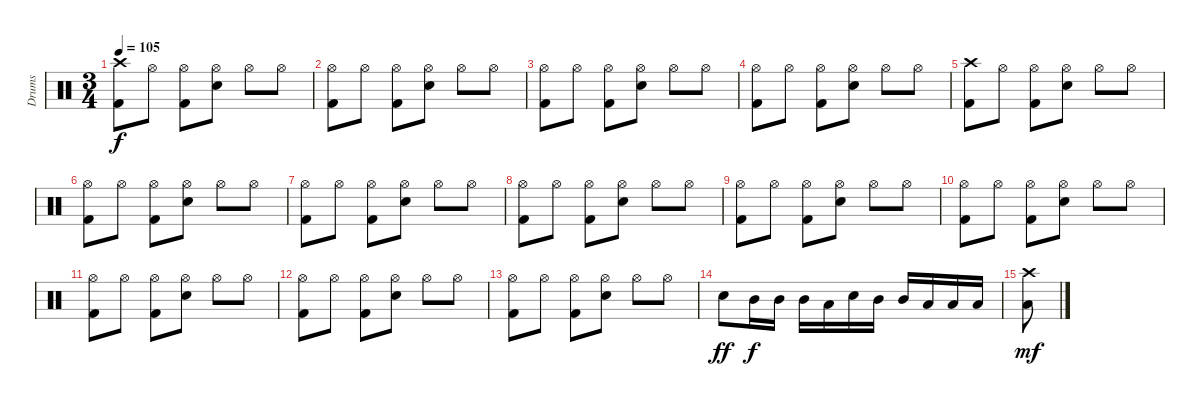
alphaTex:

\track ("Drums" "Drums") {instrument percussion}
\staff {score}
\articulation defaults
\ts (3 4)
\tempo 105
\clef neutral
\ks c
("Crash high (hit)" "Kick (hit) 2").8{dy f} "Hi-Hat (open)".8 ("Hi-Hat (open)" "Kick (hit) 2").8 ("Hi-Hat (open)" "Snare (hit) 2").8 "Hi-Hat (open)".8 "Hi-Hat (open)".8 |
("Hi-Hat (open)" "Kick (hit) 2").8 "Hi-Hat (open)".8 ("Hi-Hat (open)" "Kick (hit) 2").8 ("Hi-Hat (open)" "Snare (hit) 2").8 "Hi-Hat (open)".8 "Hi-Hat (open)".8 |
("Hi-Hat (open)" "Kick (hit) 2").8 "Hi-Hat (open)".8 ("Hi-Hat (open)" "Kick (hit) 2").8 ("Hi-Hat (open)" "Snare (hit) 2").8 "Hi-Hat (open)".8 "Hi-Hat (open)".8 |
("Hi-Hat (open)" "Kick (hit) 2").8 "Hi-Hat (open)".8 ("Hi-Hat (open)" "Kick (hit) 2").8 ("Hi-Hat (open)" "Snare (hit) 2").8 "Hi-Hat (open)".8 "Hi-Hat (open)".8 |
("Crash high (hit)" "Kick (hit) 2").8 "Hi-Hat (open)".8 ("Hi-Hat (open)" "Kick (hit) 2").8 ("Hi-Hat (open)" "Snare (hit) 2").8 "Hi-Hat (open)".8 "Hi-Hat (open)".8 |
("Hi-Hat (open)" "Kick (hit) 2").8 "Hi-Hat (open)".8 ("Hi-Hat (open)" "Kick (hit) 2").8 ("Hi-Hat (open)" "Snare (hit) 2").8 "Hi-Hat (open)".8 "Hi-Hat (open)".8 |
("Hi-Hat (open)" "Kick (hit) 2").8 "Hi-Hat (open)".8 ("Hi-Hat (open)" "Kick (hit) 2").8 ("Hi-Hat (open)" "Snare (hit) 2").8 "Hi-Hat (open)".8 "Hi-Hat (open)".8 |
("Hi-Hat (open)" "Kick (hit) 2").8 "Hi-Hat (open)".8 ("Hi-Hat (open)" "Kick (hit) 2").8 ("Hi-Hat (open)" "Snare (hit) 2").8 "Hi-Hat (open)".8 "Hi-Hat (open)".8 |
("Hi-Hat (open)" "Kick (hit) 2").8 "Hi-Hat (open)".8 ("Hi-Hat (open)" "Kick (hit) 2").8 ("Hi-Hat (open)" "Snare (hit) 2").8 "Hi-Hat (open)".8 "Hi-Hat (open)".8 |
("Hi-Hat (open)" "Kick (hit) 2").8 "Hi-Hat (open)".8 ("Hi-Hat (open)" "Kick (hit) 2").8 ("Hi-Hat (open)" "Snare (hit) 2").8 "Hi-Hat (open)".8 "Hi-Hat (open)".8 |
("Hi-Hat (open)" "Kick (hit) 2").8 "Hi-Hat (open)".8 ("Hi-Hat (open)" "Kick (hit) 2").8 ("Hi-Hat (open)" "Snare (hit) 2").8 "Hi-Hat (open)".8 "Hi-Hat (open)".8 |
("Hi-Hat (open)" "Kick (hit) 2").8 "Hi-Hat (open)".8 ("Hi-Hat (open)" "Kick (hit) 2").8 ("Hi-Hat (open)" "Snare (hit) 2").8 "Hi-Hat (open)".8 "Hi-Hat (open)".8 |
("Hi-Hat (open)" "Kick (hit) 2").8 "Hi-Hat (open)".8 ("Hi-Hat (open)" "Kick (hit) 2").8 ("Hi-Hat (open)" "Snare (hit) 2").8 "Hi-Hat (open)".8 "Hi-Hat (open)".8 |
"Snare (hit) 2".8{dy ff} "Mid Tom (hit)".16{dy f} "Mid Tom (hit)".16 "Mid Tom (hit)".16 "Low Tom (hit)".16 "Snare (hit) 2".16 "Mid Tom (hit)".16 "Mid Tom (hit)".16 "Low Tom (hit)".16 "Low Tom (hit)".16 "Low Tom (hit)".16 |
("Low Tom (hit)" "Crash high (hit)").8{dy mf}
